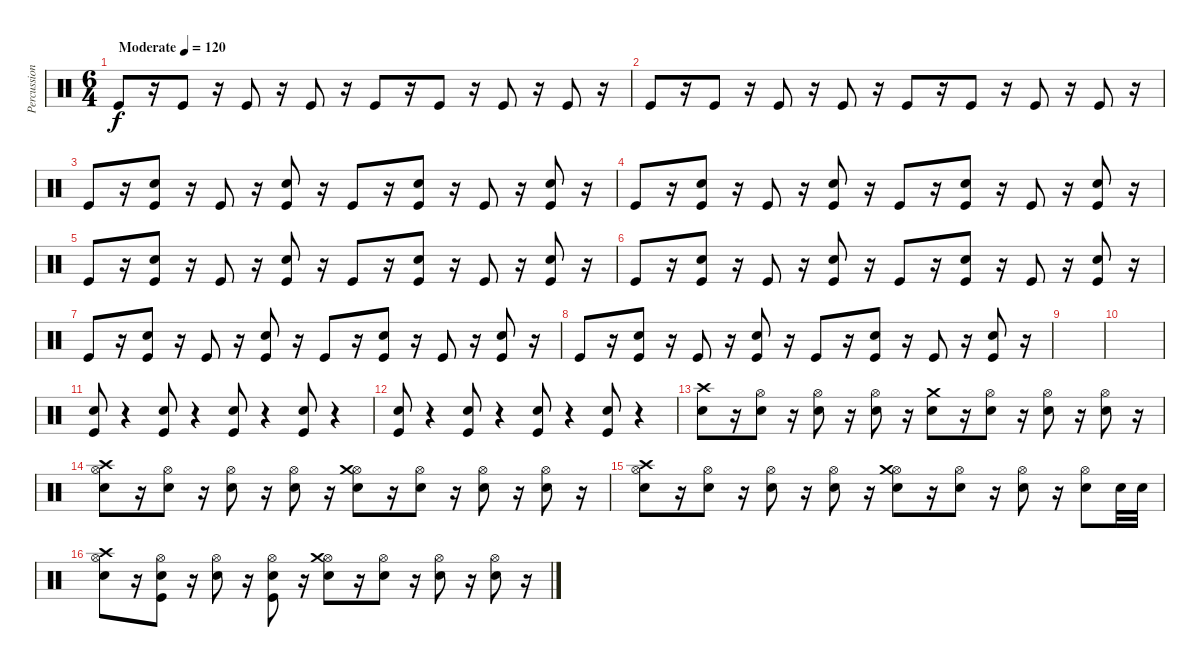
\track ("Percussion" "Percussion") {instrument percussion}
\staff {score}
\articulation defaults
\ts (6 4)
\tempo (120 "Moderate")
\clef neutral
\ks c "Kick (hit)".8{dy f}
r.16 "Kick (hit)".8 r.16 "Kick (hit)".8 r.16 "Kick (hit)".8 r.16 "Kick (hit)".8 r.16 "Kick (hit)".8 r.16 "Kick (hit)".8 r.16 "Kick (hit)".8 r.16 |
"Kick (hit)".8 r.16 "Kick (hit)".8 r.16 "Kick (hit)".8 r.16 "Kick (hit)".8 r.16 "Kick (hit)".8 r.16 "Kick (hit)".8 r.16 "Kick (hit)".8 r.16 "Kick (hit)".8 r.16 |
"Kick (hit)".8 r.16 ("Snare (hit) 2" "Kick (hit)").8 r.16 "Kick (hit)".8 r.16 ("Snare (hit) 2" "Kick (hit)").8 r.16 "Kick (hit)".8 r.16 ("Snare (hit) 2" "Kick (hit)").8 r.16 "Kick (hit)".8 r.16 ("Snare (hit) 2" "Kick (hit)").8 r.16 |
"Kick (hit)".8 r.16 ("Snare (hit) 2" "Kick (hit)").8 r.16 "Kick (hit)".8 r.16 ("Snare (hit) 2" "Kick (hit)").8 r.16 "Kick (hit)".8 r.16 ("Snare (hit) 2" "Kick (hit)").8 r.16 "Kick (hit)".8 r.16 ("Snare (hit) 2" "Kick (hit)").8 r.16 |
"Kick (hit)".8 r.16 ("Snare (hit) 2" "Kick (hit)").8 r.16 "Kick (hit)".8 r.16 ("Snare (hit) 2" "Kick (hit)").8 r.16 "Kick (hit)".8 r.16 ("Snare (hit) 2" "Kick (hit)").8 r.16 "Kick (hit)".8 r.16 ("Snare (hit) 2" "Kick (hit)").8 r.16 |
"Kick (hit)".8 r.16 ("Snare (hit) 2" "Kick (hit)").8 r.16 "Kick (hit)".8 r.16 ("Snare (hit) 2" "Kick (hit)").8 r.16 "Kick (hit)".8 r.16 ("Snare (hit) 2" "Kick (hit)").8 r.16 "Kick (hit)".8 r.16 ("Snare (hit) 2" "Kick (hit)").8 r.16 |
"Kick (hit)".8 r.16 ("Snare (hit) 2" "Kick (hit)").8 r.16 "Kick (hit)".8 r.16 ("Snare (hit) 2" "Kick (hit)").8 r.16 "Kick (hit)".8 r.16 ("Snare (hit) 2" "Kick (hit)").8 r.16 "Kick (hit)".8 r.16 ("Snare (hit) 2" "Kick (hit)").8 r.16 |
"Kick (hit)".8 r.16 ("Snare (hit) 2" "Kick (hit)").8 r.16 "Kick (hit)".8 r.16 ("Snare (hit) 2" "Kick (hit)").8 r.16 "Kick (hit)".8 r.16 ("Snare (hit) 2" "Kick (hit)").8 r.16 "Kick (hit)".8 r.16 ("Snare (hit) 2" "Kick (hit)").8 r.16 |
|
|
("Snare (hit) 2" "Kick (hit)").8 r.4 ("Snare (hit) 2" "Kick (hit)").8 r.4 ("Snare (hit) 2" "Kick (hit)").8 r.4 ("Snare (hit) 2" "Kick (hit)").8 r.4 |
("Snare (hit) 2" "Kick (hit)").8 r.4 ("Snare (hit) 2" "Kick (hit)").8 r.4 ("Snare (hit) 2" "Kick (hit)").8 r.4 ("Snare (hit) 2" "Kick (hit)").8 r.4 |
("Crash high (hit)" "Snare (hit) 2").8 r.16 ("Hi-Hat (open)" "Snare (hit) 2").8 r.16 ("Hi-Hat (open)" "Snare (hit) 2").8 r.16 ("Hi-Hat (open)" "Snare (hit) 2").8 r.16 ("Crash medium (hit)" "Snare (hit) 2").8 r.16 ("Hi-Hat (open)" "Snare (hit) 2").8 r.16 ("Hi-Hat (open)" "Snare (hit) 2").8 r.16 ("Hi-Hat (open)" "Snare (hit) 2").8 r.16 |
("Hi-Hat (open)" "Crash high (hit)" "Snare (hit) 2").8 r.16 ("Hi-Hat (open)" "Snare (hit) 2").8 r.16 ("Hi-Hat (open)" "Snare (hit) 2").8 r.16 ("Hi-Hat (open)" "Snare (hit) 2").8 r.16 ("Hi-Hat (open)" "Crash medium (hit)" "Snare (hit) 2").8 r.16 ("Hi-Hat (open)" "Snare (hit) 2").8 r.16 ("Hi-Hat (open)" "Snare (hit) 2").8 r.16 ("Hi-Hat (open)" "Snare (hit) 2").8 r.16 |
("Hi-Hat (open)" "Crash high (hit)" "Snare (hit) 2").8 r.16 ("Hi-Hat (open)" "Snare (hit) 2").8 r.16 ("Hi-Hat (open)" "Snare (hit) 2").8 r.16 ("Hi-Hat (open)" "Snare (hit) 2").8 r.16 ("Hi-Hat (open)" "Crash medium (hit)" "Snare (hit) 2").8 r.16 ("Hi-Hat (open)" "Snare (hit) 2").8 r.16 ("Hi-Hat (open)" "Snare (hit) 2").8 r.16 ("Hi-Hat (open)" "Snare (hit) 2").8 "Snare (hit) 2".32 "Snare (hit) 2".32 |
("Hi-Hat (open)" "Crash high (hit)" "Snare (hit) 2").8 r.16 ("Hi-Hat (open)" "Snare (hit) 2" "Kick (hit)").8 r.16 ("Hi-Hat (open)" "Snare (hit) 2").8 r.16 ("Hi-Hat (open)" "Snare (hit) 2" "Kick (hit)").8 r.16 ("Hi-Hat (open)" "Crash medium (hit)" "Snare (hit) 2").8 r.16 ("Hi-Hat (open)" "Snare (hit) 2").8 r.16 ("Hi-Hat (open)" "Snare (hit) 2").8 r.16 ("Hi-Hat (open)" "Snare (hit) 2").8 r.16
